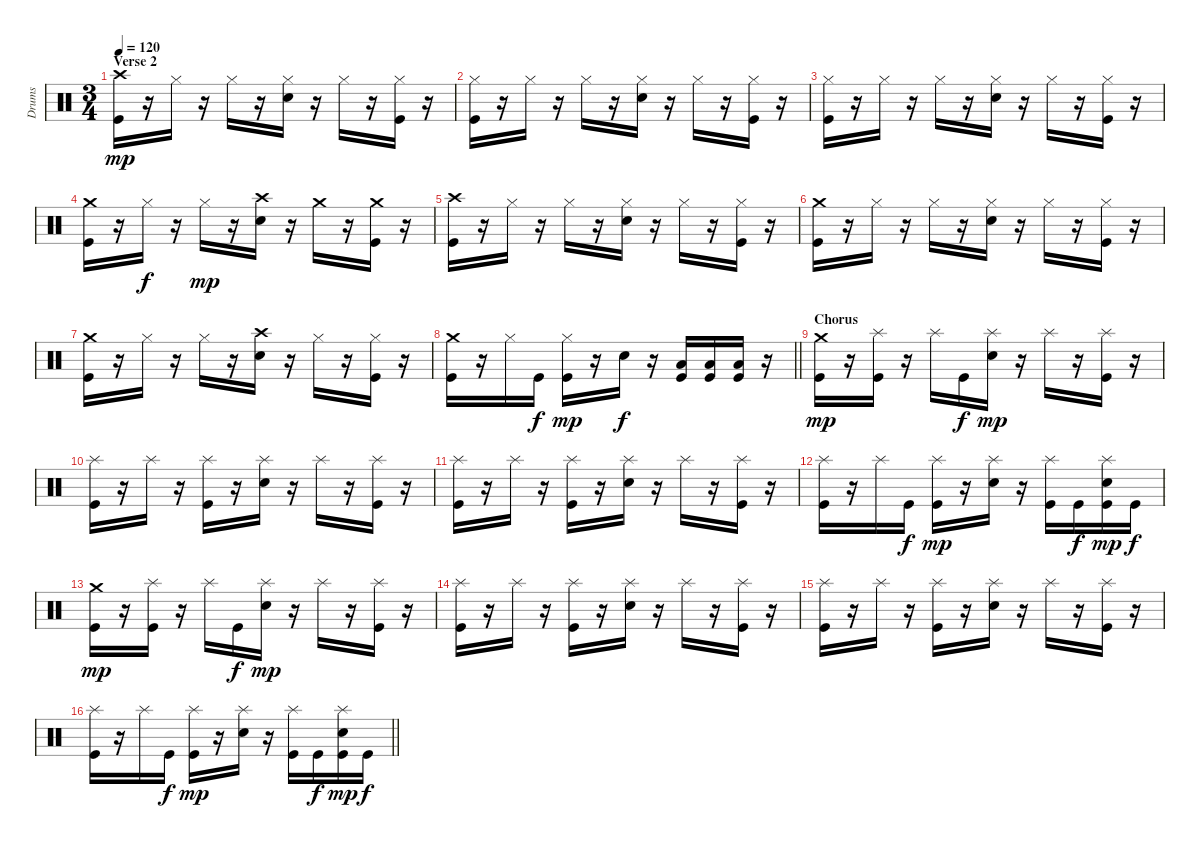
\track ("Drums" "Drums") {instrument percussion}
\staff {score}
\articulation defaults
\ts (3 4)
\section ("" "Verse 2")
\tempo 120
\clef neutral
\ks c
("Kick (hit)" "Crash high (hit)").16{dy mp} r.16 "Hi-Hat (closed)".16 r.16 "Hi-Hat (closed)".16 r.16 ("Hi-Hat (closed)" "Snare (hit) 2").16 r.16 "Hi-Hat (closed)".16 r.16 ("Kick (hit)" "Hi-Hat (closed)").16 r.16 |
("Kick (hit)" "Hi-Hat (closed)").16 r.16 "Hi-Hat (closed)".16 r.16 "Hi-Hat (closed)".16 r.16 ("Hi-Hat (closed)" "Snare (hit) 2").16 r.16 "Hi-Hat (closed)".16 r.16 ("Kick (hit)" "Hi-Hat (closed)").16 r.16 |
("Kick (hit)" "Hi-Hat (closed)").16 r.16 "Hi-Hat (closed)".16 r.16 "Hi-Hat (closed)".16 r.16 ("Hi-Hat (closed)" "Snare (hit) 2").16 r.16 "Hi-Hat (closed)".16 r.16 ("Kick (hit)" "Hi-Hat (closed)").16 r.16 |
("Kick (hit)" "Crash medium (hit)").16 r.16 "Hi-Hat (closed)".16{dy f} r.16 "Hi-Hat (closed)".16{dy mp} r.16 ("Crash high (hit)" "Snare (hit) 2").16 r.16 "Crash medium (hit)".16 r.16 ("Kick (hit)" "Crash medium (hit)").16 r.16 |
("Kick (hit)" "Crash high (hit)").16 r.16 "Hi-Hat (closed)".16 r.16 "Hi-Hat (closed)".16 r.16 ("Hi-Hat (closed)" "Snare (hit) 2").16 r.16 "Hi-Hat (closed)".16 r.16 ("Kick (hit)" "Hi-Hat (closed)").16 r.16 |
("Kick (hit)" "Crash medium (hit)").16 r.16 "Hi-Hat (closed)".16 r.16 "Hi-Hat (closed)".16 r.16 ("Hi-Hat (closed)" "Snare (hit) 2").16 r.16 "Hi-Hat (closed)".16 r.16 ("Kick (hit)" "Hi-Hat (closed)").16 r.16 |
("Kick (hit)" "Crash medium (hit)").16 r.16 "Hi-Hat (closed)".16 r.16 "Hi-Hat (closed)".16 r.16 ("Crash high (hit)" "Snare (hit) 2").16 r.16 "Hi-Hat (closed)".16 r.16 ("Kick (hit)" "Hi-Hat (closed)").16 r.16 |
\barLineRight lightlight
("Kick (hit)" "Crash medium (hit)").16 r.16 "Hi-Hat (closed)".16 "Kick (hit)".16{dy f} ("Kick (hit)" "Hi-Hat (closed)").16{dy mp} r.16 "Snare (hit) 2".16{dy f} r.16 ("Kick (hit)" "Low Tom (hit)").16 ("Kick (hit)" "Low Tom (hit)").16 ("Kick (hit)" "Low Tom (hit)").16 r.16 |
\section ("" "Chorus")
("Kick (hit)" "Crash medium (hit)").16{dy mp} r.16 ("Kick (hit)" "Splash (hit)").16 r.16 "Splash (hit)".16 "Kick (hit)".16{dy f} ("Splash (hit)" "Snare (hit) 2").16{dy mp} r.16 "Splash (hit)".16 r.16 ("Kick (hit)" "Splash (hit)").16 r.16 |
("Kick (hit)" "Splash (hit)").16 r.16 "Splash (hit)".16 r.16 ("Kick (hit)" "Splash (hit)").16 r.16 ("Splash (hit)" "Snare (hit) 2").16 r.16 "Splash (hit)".16 r.16 ("Kick (hit)" "Splash (hit)").16 r.16 |
("Kick (hit)" "Splash (hit)").16 r.16 "Splash (hit)".16 r.16 ("Kick (hit)" "Splash (hit)").16 r.16 ("Splash (hit)" "Snare (hit) 2").16 r.16 "Splash (hit)".16 r.16 ("Kick (hit)" "Splash (hit)").16 r.16 |
("Kick (hit)" "Splash (hit)").16 r.16 "Splash (hit)".16 "Kick (hit)".16{dy f} ("Kick (hit)" "Splash (hit)").16{dy mp} r.16 ("Splash (hit)" "Snare (hit) 2").16 r.16 ("Kick (hit)" "Splash (hit)").16 "Kick (hit)".16{dy f} ("Kick (hit)" "Splash (hit)" "Snare (hit) 2").16{dy mp} "Kick (hit)".16{dy f} |
("Kick (hit)" "Crash medium (hit)").16{dy mp} r.16 ("Kick (hit)" "Splash (hit)").16 r.16 "Splash (hit)".16 "Kick (hit)".16{dy f} ("Splash (hit)" "Snare (hit) 2").16{dy mp} r.16 "Splash (hit)".16 r.16 ("Kick (hit)" "Splash (hit)").16 r.16 |
("Kick (hit)" "Splash (hit)").16 r.16 "Splash (hit)".16 r.16 ("Kick (hit)" "Splash (hit)").16 r.16 ("Splash (hit)" "Snare (hit) 2").16 r.16 "Splash (hit)".16 r.16 ("Kick (hit)" "Splash (hit)").16 r.16 |
("Kick (hit)" "Splash (hit)").16 r.16 "Splash (hit)".16 r.16 ("Kick (hit)" "Splash (hit)").16 r.16 ("Splash (hit)" "Snare (hit) 2").16 r.16 "Splash (hit)".16 r.16 ("Kick (hit)" "Splash (hit)").16 r.16 |
\barLineRight lightlight
("Kick (hit)" "Splash (hit)").16 r.16 "Splash (hit)".16 "Kick (hit)".16{dy f} ("Kick (hit)" "Splash (hit)").16{dy mp} r.16 ("Splash (hit)" "Snare (hit) 2").16 r.16 ("Kick (hit)" "Splash (hit)").16 "Kick (hit)".16{dy f} ("Kick (hit)" "Splash (hit)" "Snare (hit) 2").16{dy mp} "Kick (hit)".16{dy f}
